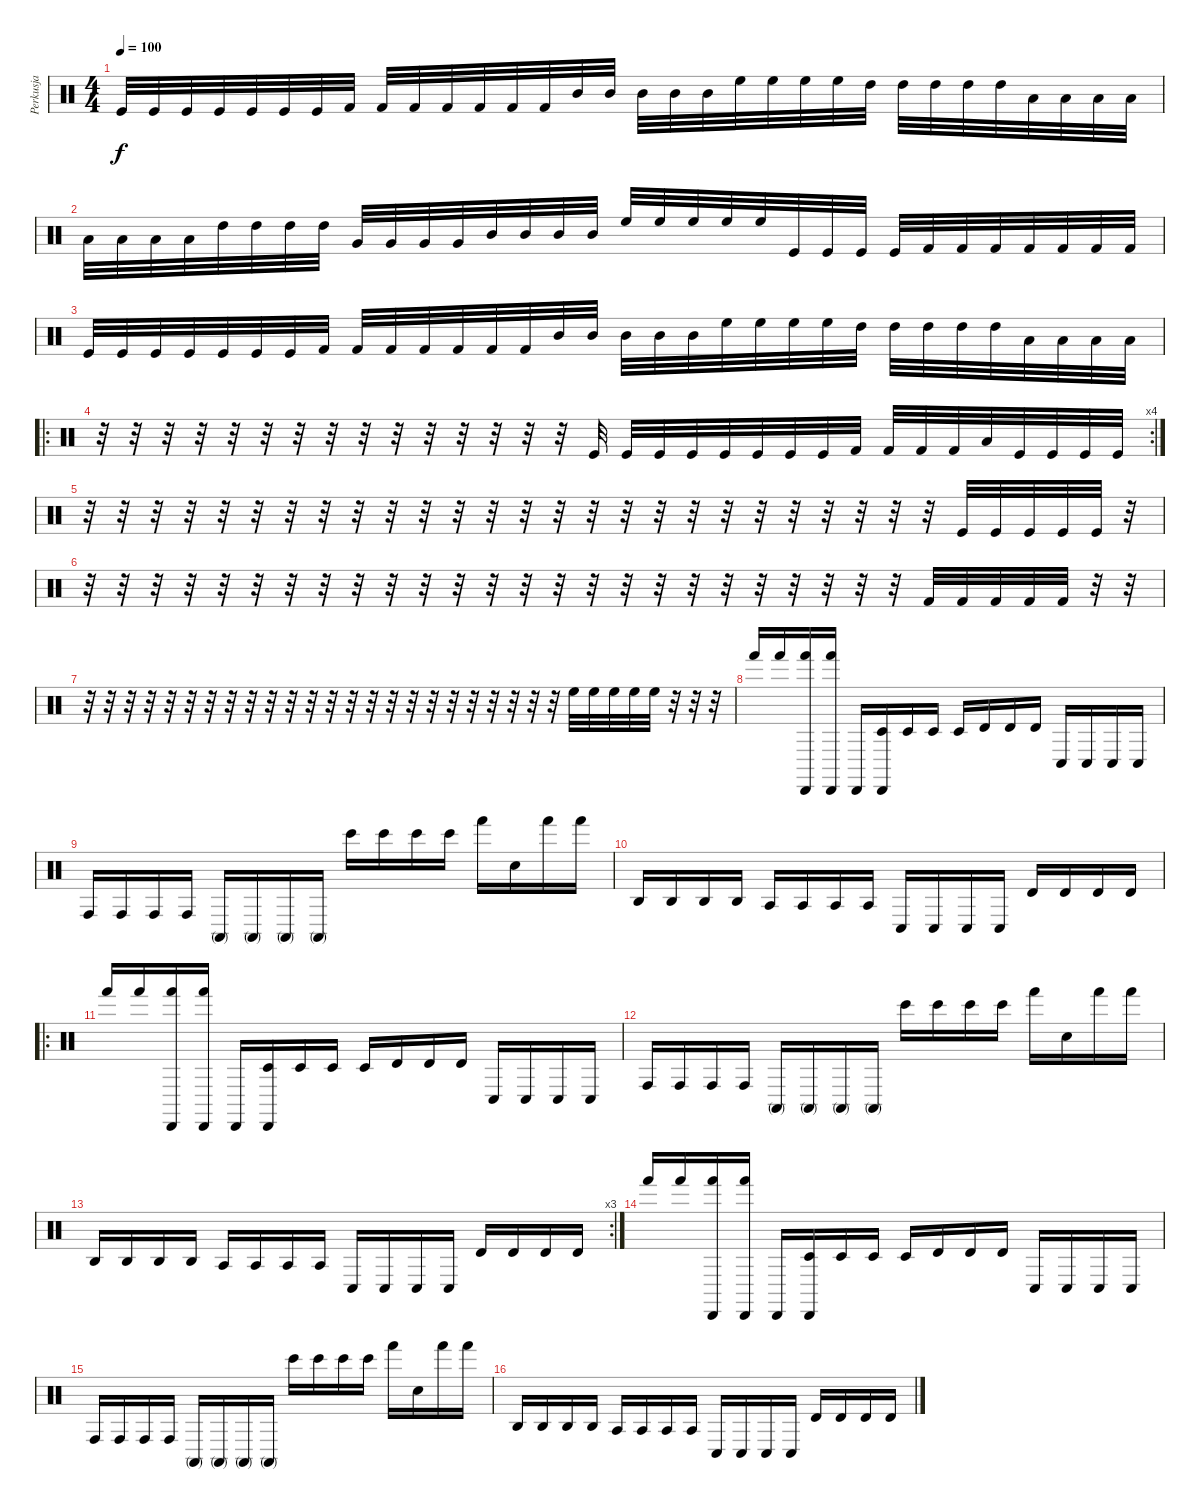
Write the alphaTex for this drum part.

\track ("Perkusja" "Perkusja") {instrument percussion}
\staff {score}
\articulation defaults
\ts (4 4)
\tempo 100
\clef neutral
\ks c "Kick (hit)".32{dy f} "Kick (hit)".32 "Kick (hit)".32 "Kick (hit)".32 "Kick (hit)".32 "Kick (hit)".32 "Kick (hit)".32 "Kick (hit) 2".32 "Kick (hit) 2".32 "Kick (hit) 2".32 "Kick (hit) 2".32 "Kick (hit) 2".32 "Kick (hit) 2".32 "Kick (hit) 2".32 "Mid Tom (hit)".32 "Mid Tom (hit)".32 "Mid Tom (hit)".32 "Mid Tom (hit)".32 "Mid Tom (hit)".32 "High Floor Tom (hit)".32 "High Floor Tom (hit)".32 "High Floor Tom (hit)".32 "High Floor Tom (hit)".32 "High Tom (hit)".32 "High Tom (hit)".32 "High Tom (hit)".32 "High Tom (hit)".32 "High Tom (hit)".32 "Low Tom (hit)".32 "Low Tom (hit)".32 "Low Tom (hit)".32 "Low Tom (hit)".32
|
"Low Tom (hit)".32 "Low Tom (hit)".32 "Low Tom (hit)".32 "Low Tom (hit)".32 "High Tom (hit)".32 "High Tom (hit)".32 "High Tom (hit)".32 "High Tom (hit)".32 "Very Low Tom (hit)".32 "Very Low Tom (hit)".32 "Very Low Tom (hit)".32 "Very Low Tom (hit)".32 "Mid Tom (hit)".32 "Mid Tom (hit)".32 "Mid Tom (hit)".32 "Mid Tom (hit)".32 "High Floor Tom (hit)".32 "High Floor Tom (hit)".32 "High Floor Tom (hit)".32 "High Floor Tom (hit)".32 "High Floor Tom (hit)".32 "Kick (hit)".32 "Kick (hit)".32 "Kick (hit)".32 "Kick (hit)".32 "Kick (hit) 2".32 "Kick (hit) 2".32 "Kick (hit) 2".32 "Kick (hit) 2".32 "Kick (hit) 2".32 "Kick (hit) 2".32 "Kick (hit) 2".32 |
"Kick (hit)".32 "Kick (hit)".32 "Kick (hit)".32 "Kick (hit)".32 "Kick (hit)".32 "Kick (hit)".32 "Kick (hit)".32 "Kick (hit) 2".32 "Kick (hit) 2".32 "Kick (hit) 2".32 "Kick (hit) 2".32 "Kick (hit) 2".32 "Kick (hit) 2".32 "Kick (hit) 2".32 "Mid Tom (hit)".32 "Mid Tom (hit)".32 "Mid Tom (hit)".32 "Mid Tom (hit)".32 "Mid Tom (hit)".32 "High Floor Tom (hit)".32 "High Floor Tom (hit)".32 "High Floor Tom (hit)".32 "High Floor Tom (hit)".32 "High Tom (hit)".32 "High Tom (hit)".32 "High Tom (hit)".32 "High Tom (hit)".32 "High Tom (hit)".32 "Low Tom (hit)".32 "Low Tom (hit)".32 "Low Tom (hit)".32 "Low Tom (hit)".32 |
\ro
\rc 4
r.32 r.32 r.32 r.32 r.32 r.32 r.32 r.32 r.32 r.32 r.32 r.32 r.32 r.32 r.32 "Kick (hit)".32 "Kick (hit)".32 "Kick (hit)".32 "Kick (hit)".32 "Kick (hit)".32 "Kick (hit)".32 "Kick (hit)".32 "Kick (hit)".32 "Kick (hit) 2".32 "Kick (hit) 2".32 "Kick (hit) 2".32 "Kick (hit) 2".32 "Low Tom (hit)".32 "Kick (hit)".32 "Kick (hit)".32 "Kick (hit)".32 "Kick (hit)".32 |
r.32 r.32 r.32 r.32 r.32 r.32 r.32 r.32 r.32 r.32 r.32 r.32 r.32 r.32 r.32 r.32 r.32 r.32 r.32 r.32 r.32 r.32 r.32 r.32 r.32 r.32 "Kick (hit)".32 "Kick (hit)".32 "Kick (hit)".32 "Kick (hit)".32 "Kick (hit)".32 r.32 |
r.32 r.32 r.32 r.32 r.32 r.32 r.32 r.32 r.32 r.32 r.32 r.32 r.32 r.32 r.32 r.32 r.32 r.32 r.32 r.32 r.32 r.32 r.32 r.32 r.32 "Kick (hit) 2".32 "Kick (hit) 2".32 "Kick (hit) 2".32 "Kick (hit) 2".32 "Kick (hit) 2".32 r.32 r.32 |
r.32 r.32 r.32 r.32 r.32 r.32 r.32 r.32 r.32 r.32 r.32 r.32 r.32 r.32 r.32 r.32 r.32 r.32 r.32 r.32 r.32 r.32 r.32 r.32 "High Floor Tom (hit)".32 "High Floor Tom (hit)".32 "High Floor Tom (hit)".32 "High Floor Tom (hit)".32 "High Floor Tom (hit)".32 r.32 r.32 r.32 |
"Hand (hit)".16 "Hand (hit)".16 ("Cabasa (hit)" "Hand (hit)").16 ("Cabasa (hit)" "Hand (hit)").16 "Cabasa (hit)".16 ("Cabasa (hit)" "Timbale low (hit)").16 "Timbale low (hit)".16 "Timbale low (hit)".16 "Timbale low (hit)".16 "Timbale high (hit)".16 "Timbale high (hit)".16 "Timbale high (hit)".16 "Conga low (hit)".16 "Conga low (hit)".16 "Conga low (hit)".16 "Conga low (hit)".16 |
"Conga high (hit)".16 "Conga high (hit)".16 "Conga high (hit)".16 "Conga high (hit)".16 "Conga high (mute)".16 "Conga high (mute)".16 "Conga high (mute)".16 "Conga high (mute)".16 "Bongo High (hit)".16 "Bongo High (hit)".16 "Bongo High (hit)".16 "Bongo High (hit)".16 "Hand (hit)".16 "Snare (hit)".16 "Hand (hit)".16 "Hand (hit)".16 |
"Agogo high (hit)".16 "Agogo high (hit)".16 "Agogo high (hit)".16 "Agogo high (hit)".16 "Agogo tow (hit)".16 "Agogo tow (hit)".16 "Agogo tow (hit)".16 "Agogo tow (hit)".16 "Conga low (hit)".16 "Conga low (hit)".16 "Conga low (hit)".16 "Conga low (hit)".16 "Timbale high (hit)".16 "Timbale high (hit)".16 "Timbale high (hit)".16 "Timbale high (hit)".16 |
\ro "Hand (hit)".16 "Hand (hit)".16
("Cabasa (hit)" "Hand (hit)").16 ("Cabasa (hit)" "Hand (hit)").16 "Cabasa (hit)".16 ("Cabasa (hit)" "Timbale low (hit)").16 "Timbale low (hit)".16 "Timbale low (hit)".16 "Timbale low (hit)".16 "Timbale high (hit)".16 "Timbale high (hit)".16 "Timbale high (hit)".16 "Conga low (hit)".16 "Conga low (hit)".16 "Conga low (hit)".16 "Conga low (hit)".16 |
"Conga high (hit)".16 "Conga high (hit)".16 "Conga high (hit)".16 "Conga high (hit)".16 "Conga high (mute)".16 "Conga high (mute)".16 "Conga high (mute)".16 "Conga high (mute)".16 "Bongo High (hit)".16 "Bongo High (hit)".16 "Bongo High (hit)".16 "Bongo High (hit)".16 "Hand (hit)".16 "Snare (hit)".16 "Hand (hit)".16 "Hand (hit)".16 |
\rc 3 "Agogo high (hit)".16 "Agogo high (hit)".16 "Agogo high (hit)".16 "Agogo high (hit)".16 "Agogo tow (hit)".16 "Agogo tow (hit)".16 "Agogo tow (hit)".16 "Agogo tow (hit)".16 "Conga low (hit)".16 "Conga low (hit)".16 "Conga low (hit)".16 "Conga low (hit)".16 "Timbale high (hit)".16 "Timbale high (hit)".16 "Timbale high (hit)".16 "Timbale high (hit)".16
|
"Hand (hit)".16 "Hand (hit)".16 ("Cabasa (hit)" "Hand (hit)").16 ("Cabasa (hit)" "Hand (hit)").16 "Cabasa (hit)".16 ("Cabasa (hit)" "Timbale low (hit)").16 "Timbale low (hit)".16 "Timbale low (hit)".16 "Timbale low (hit)".16 "Timbale high (hit)".16 "Timbale high (hit)".16 "Timbale high (hit)".16 "Conga low (hit)".16 "Conga low (hit)".16 "Conga low (hit)".16 "Conga low (hit)".16 |
"Conga high (hit)".16 "Conga high (hit)".16 "Conga high (hit)".16 "Conga high (hit)".16 "Conga high (mute)".16 "Conga high (mute)".16 "Conga high (mute)".16 "Conga high (mute)".16 "Bongo High (hit)".16 "Bongo High (hit)".16 "Bongo High (hit)".16 "Bongo High (hit)".16 "Hand (hit)".16 "Snare (hit)".16 "Hand (hit)".16 "Hand (hit)".16 |
"Agogo high (hit)".16 "Agogo high (hit)".16 "Agogo high (hit)".16 "Agogo high (hit)".16 "Agogo tow (hit)".16 "Agogo tow (hit)".16 "Agogo tow (hit)".16 "Agogo tow (hit)".16 "Conga low (hit)".16 "Conga low (hit)".16 "Conga low (hit)".16 "Conga low (hit)".16 "Timbale high (hit)".16 "Timbale high (hit)".16 "Timbale high (hit)".16 "Timbale high (hit)".16
